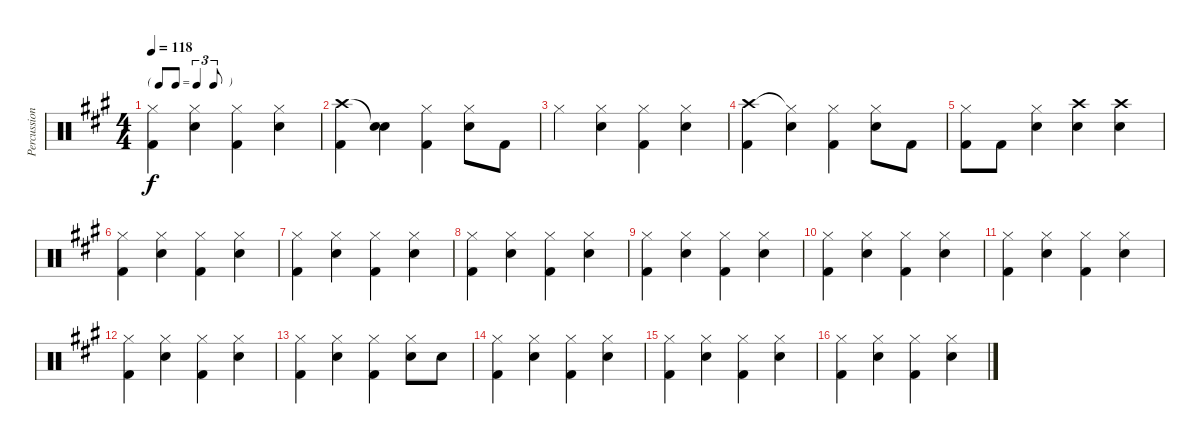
\track ("Percussion" "Percussion") {instrument percussion}
\staff {score}
\articulation defaults
\ts (4 4)
\tf triplet8th
\tempo 118
\clef neutral
\ks a
("Hi-Hat (closed)" "Kick (hit) 2").4{dy f} ("Hi-Hat (closed)" "Snare (hit) 2").4 ("Hi-Hat (closed)" "Kick (hit) 2").4 ("Hi-Hat (closed)" "Snare (hit) 2").4 |
("Crash high (hit)" "Kick (hit) 2").4 ("Snare (hit)"{t} "Snare (hit) 2").4 ("Hi-Hat (closed)" "Kick (hit) 2").4 ("Hi-Hat (closed)" "Snare (hit) 2").8 "Kick (hit) 2".8 |
"Hi-Hat (closed)".4 ("Hi-Hat (closed)" "Snare (hit) 2").4 ("Hi-Hat (closed)" "Kick (hit) 2").4 ("Hi-Hat (closed)" "Snare (hit) 2").4 |
("Crash high (hit)" "Kick (hit) 2").4 ("Hi-Hat (closed)"{t} "Snare (hit) 2").4 ("Hi-Hat (closed)" "Kick (hit) 2").4 ("Hi-Hat (closed)" "Snare (hit) 2").8 "Kick (hit) 2".8 |
("Hi-Hat (closed)" "Kick (hit) 2").8 "Kick (hit) 2".8 ("Hi-Hat (closed)" "Snare (hit) 2").4 ("Crash high (hit)" "Snare (hit) 2").4 ("Crash high (hit)" "Snare (hit) 2").4 |
("Hi-Hat (closed)" "Kick (hit) 2").4 ("Hi-Hat (closed)" "Snare (hit) 2").4 ("Hi-Hat (closed)" "Kick (hit) 2").4 ("Hi-Hat (closed)" "Snare (hit) 2").4 |
("Hi-Hat (closed)" "Kick (hit) 2").4 ("Hi-Hat (closed)" "Snare (hit) 2").4 ("Hi-Hat (closed)" "Kick (hit) 2").4 ("Hi-Hat (closed)" "Snare (hit) 2").4 |
("Hi-Hat (closed)" "Kick (hit) 2").4 ("Hi-Hat (closed)" "Snare (hit) 2").4 ("Hi-Hat (closed)" "Kick (hit) 2").4 ("Hi-Hat (closed)" "Snare (hit) 2").4 |
("Hi-Hat (closed)" "Kick (hit) 2").4 ("Hi-Hat (closed)" "Snare (hit) 2").4 ("Hi-Hat (closed)" "Kick (hit) 2").4 ("Hi-Hat (closed)" "Snare (hit) 2").4 |
("Hi-Hat (closed)" "Kick (hit) 2").4 ("Hi-Hat (closed)" "Snare (hit) 2").4 ("Hi-Hat (closed)" "Kick (hit) 2").4 ("Hi-Hat (closed)" "Snare (hit) 2").4 |
("Hi-Hat (closed)" "Kick (hit) 2").4 ("Hi-Hat (closed)" "Snare (hit) 2").4 ("Hi-Hat (closed)" "Kick (hit) 2").4 ("Hi-Hat (closed)" "Snare (hit) 2").4 |
("Hi-Hat (closed)" "Kick (hit) 2").4 ("Hi-Hat (closed)" "Snare (hit) 2").4 ("Hi-Hat (closed)" "Kick (hit) 2").4 ("Hi-Hat (closed)" "Snare (hit) 2").4 |
("Hi-Hat (closed)" "Kick (hit) 2").4 ("Hi-Hat (closed)" "Snare (hit) 2").4 ("Hi-Hat (closed)" "Kick (hit) 2").4 ("Hi-Hat (closed)" "Snare (hit) 2").8 "Snare (hit) 2".8 |
("Hi-Hat (closed)" "Kick (hit) 2").4 ("Hi-Hat (closed)" "Snare (hit) 2").4 ("Hi-Hat (closed)" "Kick (hit) 2").4 ("Hi-Hat (closed)" "Snare (hit) 2").4 |
("Hi-Hat (closed)" "Kick (hit) 2").4 ("Hi-Hat (closed)" "Snare (hit) 2").4 ("Hi-Hat (closed)" "Kick (hit) 2").4 ("Hi-Hat (closed)" "Snare (hit) 2").4 |
("Hi-Hat (closed)" "Kick (hit) 2").4 ("Hi-Hat (closed)" "Snare (hit) 2").4 ("Hi-Hat (closed)" "Kick (hit) 2").4 ("Hi-Hat (closed)" "Snare (hit) 2").4
